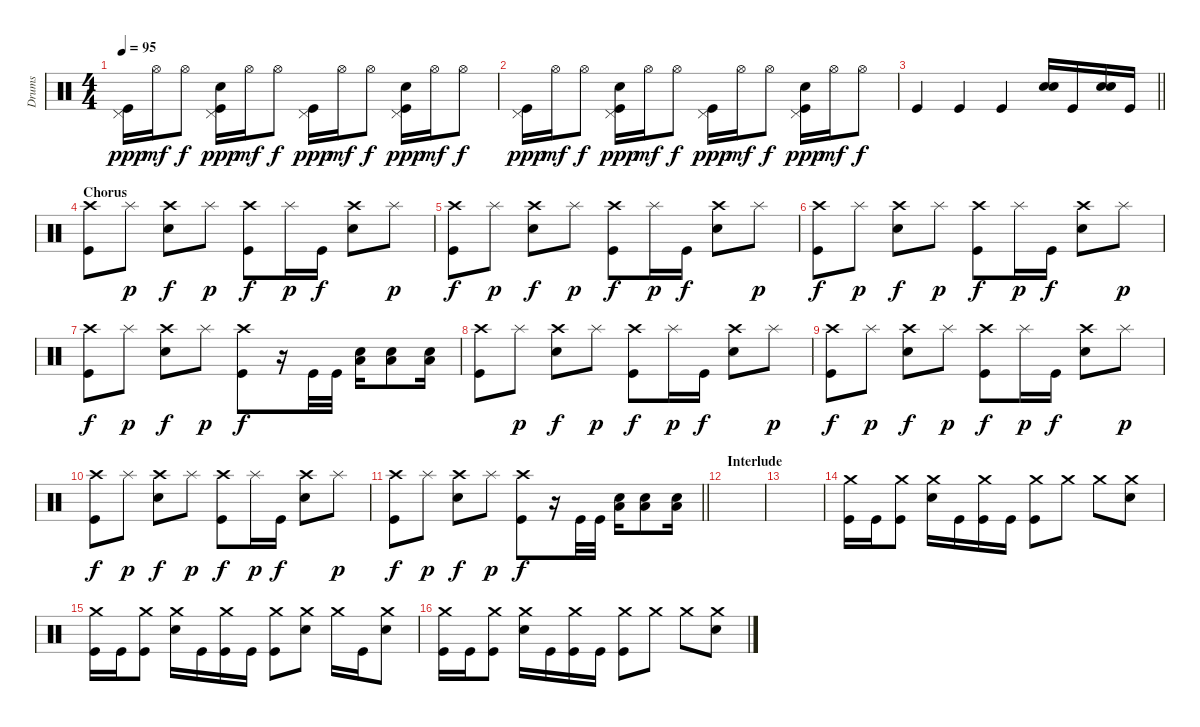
\track ("Drums" "Drums") {instrument percussion}
\staff {score}
\articulation defaults
\ts (4 4)
\tempo 95
\clef neutral
\ks c
("Pedal Hi-Hat (hit)" "Kick (hit)").16{dy ppp} "Hi-Hat (open)".16{dy mf} "Hi-Hat (open)".8{dy f} ("Pedal Hi-Hat (hit)" "Snare (hit) 2" "Kick (hit)").16{dy ppp} "Hi-Hat (open)".16{dy mf} "Hi-Hat (open)".8{dy f} ("Pedal Hi-Hat (hit)" "Kick (hit)").16{dy ppp} "Hi-Hat (open)".16{dy mf} "Hi-Hat (open)".8{dy f} ("Pedal Hi-Hat (hit)" "Snare (hit) 2" "Kick (hit)").16{dy ppp} "Hi-Hat (open)".16{dy mf} "Hi-Hat (open)".8{dy f} |
("Pedal Hi-Hat (hit)" "Kick (hit)").16{dy ppp} "Hi-Hat (open)".16{dy mf} "Hi-Hat (open)".8{dy f} ("Pedal Hi-Hat (hit)" "Snare (hit) 2" "Kick (hit)").16{dy ppp} "Hi-Hat (open)".16{dy mf} "Hi-Hat (open)".8{dy f} ("Pedal Hi-Hat (hit)" "Kick (hit)").16{dy ppp} "Hi-Hat (open)".16{dy mf} "Hi-Hat (open)".8{dy f} ("Pedal Hi-Hat (hit)" "Snare (hit) 2" "Kick (hit)").16{dy ppp} "Hi-Hat (open)".16{dy mf} "Hi-Hat (open)".8{dy f} |
\barLineRight lightlight "Kick (hit)".4 "Kick (hit)".4 "Kick (hit)".4
("Snare (hit) 2" "Snare (hit) 2").16 "Kick (hit)".16 ("Snare (hit) 2" "Snare (hit) 2").16 "Kick (hit)".16 |
\section ("" "Chorus ")
("Crash high (hit)" "Kick (hit)").8 "Splash (hit)".8{dy p} ("Crash high (hit)" "Snare (hit) 2").8{dy f} "Splash (hit)".8{dy p} ("Crash high (hit)" "Kick (hit)").8{dy f} "Splash (hit)".16{dy p} "Kick (hit)".16{dy f} ("Crash high (hit)" "Snare (hit) 2").8 "Splash (hit)".8{dy p} |
("Crash high (hit)" "Kick (hit)").8{dy f} "Splash (hit)".8{dy p} ("Crash high (hit)" "Snare (hit) 2").8{dy f} "Splash (hit)".8{dy p} ("Crash high (hit)" "Kick (hit)").8{dy f} "Splash (hit)".16{dy p} "Kick (hit)".16{dy f} ("Crash high (hit)" "Snare (hit) 2").8 "Splash (hit)".8{dy p} |
("Crash high (hit)" "Kick (hit)").8{dy f} "Splash (hit)".8{dy p} ("Crash high (hit)" "Snare (hit) 2").8{dy f} "Splash (hit)".8{dy p} ("Crash high (hit)" "Kick (hit)").8{dy f} "Splash (hit)".16{dy p} "Kick (hit)".16{dy f} ("Crash high (hit)" "Snare (hit) 2").8 "Splash (hit)".8{dy p} |
("Crash high (hit)" "Kick (hit)").8{dy f} "Splash (hit)".8{dy p} ("Crash high (hit)" "Snare (hit) 2").8{dy f} "Splash (hit)".8{dy p} ("Crash high (hit)" "Kick (hit)").8{dy f} r.16 "Kick (hit)".32 "Kick (hit)".32 ("Snare (hit) 2" "Low Floor Tom (hit)").16 ("Snare (hit) 2" "Low Floor Tom (hit)").8 ("Snare (hit) 2" "Low Floor Tom (hit)").16 |
("Crash high (hit)" "Kick (hit)").8 "Splash (hit)".8{dy p} ("Crash high (hit)" "Snare (hit) 2").8{dy f} "Splash (hit)".8{dy p} ("Crash high (hit)" "Kick (hit)").8{dy f} "Splash (hit)".16{dy p} "Kick (hit)".16{dy f} ("Crash high (hit)" "Snare (hit) 2").8 "Splash (hit)".8{dy p} |
("Crash high (hit)" "Kick (hit)").8{dy f} "Splash (hit)".8{dy p} ("Crash high (hit)" "Snare (hit) 2").8{dy f} "Splash (hit)".8{dy p} ("Crash high (hit)" "Kick (hit)").8{dy f} "Splash (hit)".16{dy p} "Kick (hit)".16{dy f} ("Crash high (hit)" "Snare (hit) 2").8 "Splash (hit)".8{dy p} |
("Crash high (hit)" "Kick (hit)").8{dy f} "Splash (hit)".8{dy p} ("Crash high (hit)" "Snare (hit) 2").8{dy f} "Splash (hit)".8{dy p} ("Crash high (hit)" "Kick (hit)").8{dy f} "Splash (hit)".16{dy p} "Kick (hit)".16{dy f} ("Crash high (hit)" "Snare (hit) 2").8 "Splash (hit)".8{dy p} |
\barLineRight lightlight
("Crash high (hit)" "Kick (hit)").8{dy f} "Splash (hit)".8{dy p} ("Crash high (hit)" "Snare (hit) 2").8{dy f} "Splash (hit)".8{dy p} ("Crash high (hit)" "Kick (hit)").8{dy f} r.16 "Kick (hit)".32 "Kick (hit)".32 ("Snare (hit) 2" "Low Floor Tom (hit)").16 ("Snare (hit) 2" "Low Floor Tom (hit)").8 ("Snare (hit) 2" "Low Floor Tom (hit)").16 |
\section ("" "Interlude")
|
|
("Crash medium (hit)" "Kick (hit)").16 "Kick (hit)".16 ("Crash medium (hit)" "Kick (hit)").8 ("Crash medium (hit)" "Snare (hit) 2").16 "Kick (hit)".16 ("Crash medium (hit)" "Kick (hit)").16 "Kick (hit)".16 ("Crash medium (hit)" "Kick (hit)").8 "Crash medium (hit)".8 "Crash medium (hit)".8 ("Crash medium (hit)" "Snare (hit) 2").8 |
("Crash medium (hit)" "Kick (hit)").16 "Kick (hit)".16 ("Crash medium (hit)" "Kick (hit)").8 ("Crash medium (hit)" "Snare (hit) 2").16 "Kick (hit)".16 ("Crash medium (hit)" "Kick (hit)").16 "Kick (hit)".16 ("Crash medium (hit)" "Kick (hit)").8 ("Crash medium (hit)" "Snare (hit) 2").8 "Crash medium (hit)".16 "Kick (hit)".16 ("Crash medium (hit)" "Snare (hit) 2").8 |
("Crash medium (hit)" "Kick (hit)").16 "Kick (hit)".16 ("Crash medium (hit)" "Kick (hit)").8 ("Crash medium (hit)" "Snare (hit) 2").16 "Kick (hit)".16 ("Crash medium (hit)" "Kick (hit)").16 "Kick (hit)".16 ("Crash medium (hit)" "Kick (hit)").8 "Crash medium (hit)".8 "Crash medium (hit)".8 ("Crash medium (hit)" "Snare (hit) 2").8
